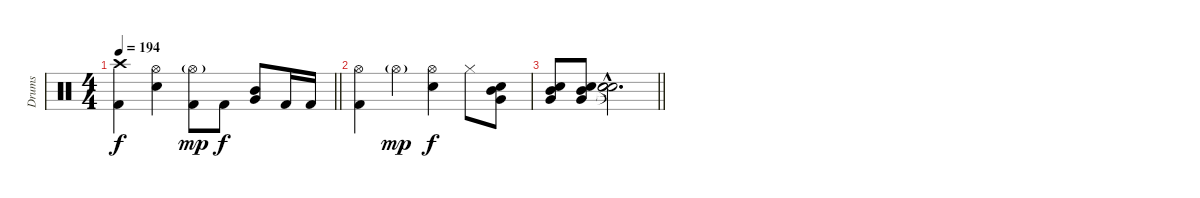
\track ("Drums" "Drums") {instrument percussion}
\staff {score}
\articulation defaults
\ts (4 4)
\tempo 194
\clef neutral
\barLineRight lightlight
\ks c
("Crash high (hit)" "Kick (hit) 2").4{dy f} ("Hi-Hat (open)" "Electric Snare (hit)").4 ("Hi-Hat (open)"{g} "Kick (hit) 2").8{dy mp} "Kick (hit) 2".8{dy f} ("Mid Tom (hit)" "Very Low Tom (hit)").8 "Kick (hit) 2".16 "Kick (hit) 2".16 |
("Hi-Hat (open)" "Kick (hit) 2").4 "Hi-Hat (open)"{g}.4{dy mp} ("Hi-Hat (open)" "Electric Snare (hit)").4{dy f} "Hi-Hat (closed)".8 ("Mid Tom (hit)" "Very Low Tom (hit)" "Electric Snare (hit)").8 |
\barLineRight lightlight
("Mid Tom (hit)" "Very Low Tom (hit)" "Electric Snare (hit)").8 ("Mid Tom (hit)" "Very Low Tom (hit)" "Electric Snare (hit)").8 ("Snare (hit)"{hac t} "Snare (hit)"{hac t} "Snare (hit)"{hac t}).2{d}
